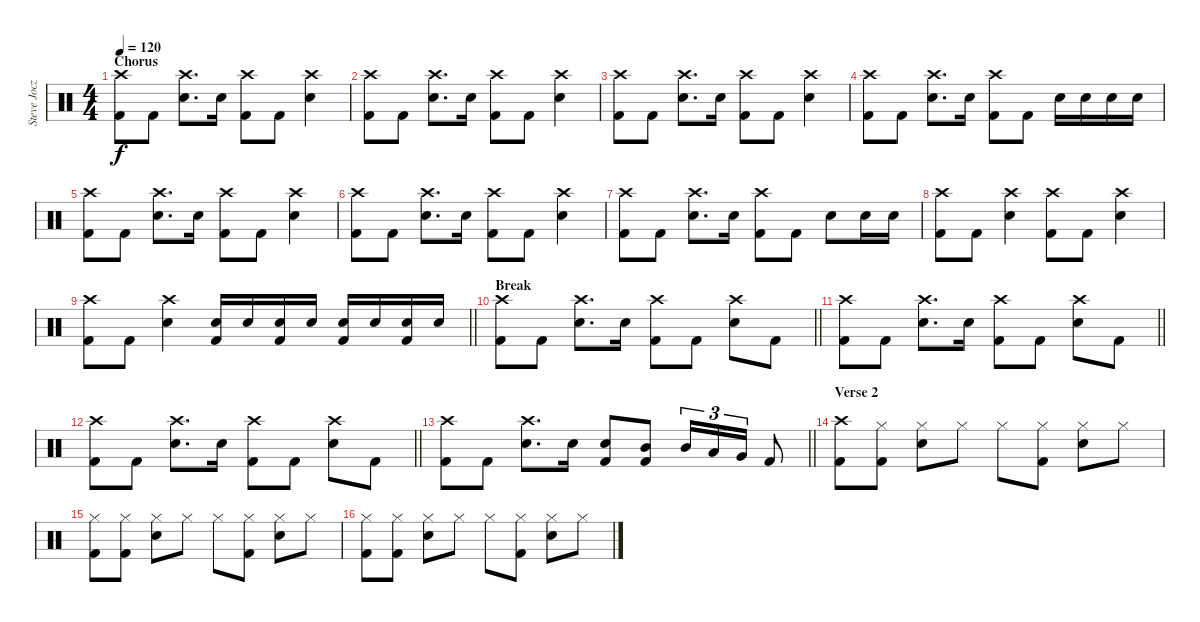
\track ("Steve Jocz" "Steve Jocz") {instrument percussion}
\staff {score}
\articulation defaults
\ts (4 4)
\section ("" "Chorus")
\tempo 120
\clef neutral
\ks c
("Crash high (hit)" "Kick (hit) 2").8{dy f} "Kick (hit) 2".8 ("Crash high (hit)" "Snare (hit) 2").8{d} "Snare (hit) 2".16 ("Crash high (hit)" "Kick (hit) 2").8 "Kick (hit) 2".8 ("Crash high (hit)" "Snare (hit) 2").4 |
("Crash high (hit)" "Kick (hit) 2").8 "Kick (hit) 2".8 ("Crash high (hit)" "Snare (hit) 2").8{d} "Snare (hit) 2".16 ("Crash high (hit)" "Kick (hit) 2").8 "Kick (hit) 2".8 ("Crash high (hit)" "Snare (hit) 2").4 |
("Crash high (hit)" "Kick (hit) 2").8 "Kick (hit) 2".8 ("Crash high (hit)" "Snare (hit) 2").8{d} "Snare (hit) 2".16 ("Crash high (hit)" "Kick (hit) 2").8 "Kick (hit) 2".8 ("Crash high (hit)" "Snare (hit) 2").4 |
("Crash high (hit)" "Kick (hit) 2").8 "Kick (hit) 2".8 ("Crash high (hit)" "Snare (hit) 2").8{d} "Snare (hit) 2".16 ("Crash high (hit)" "Kick (hit) 2").8 "Kick (hit) 2".8 "Snare (hit) 2".16 "Snare (hit) 2".16 "Snare (hit) 2".16 "Snare (hit) 2".16 |
("Crash high (hit)" "Kick (hit) 2").8 "Kick (hit) 2".8 ("Crash high (hit)" "Snare (hit) 2").8{d} "Snare (hit) 2".16 ("Crash high (hit)" "Kick (hit) 2").8 "Kick (hit) 2".8 ("Crash high (hit)" "Snare (hit) 2").4 |
("Crash high (hit)" "Kick (hit) 2").8 "Kick (hit) 2".8 ("Crash high (hit)" "Snare (hit) 2").8{d} "Snare (hit) 2".16 ("Crash high (hit)" "Kick (hit) 2").8 "Kick (hit) 2".8 ("Crash high (hit)" "Snare (hit) 2").4 |
("Crash high (hit)" "Kick (hit) 2").8 "Kick (hit) 2".8 ("Crash high (hit)" "Snare (hit) 2").8{d} "Snare (hit) 2".16 ("Crash high (hit)" "Kick (hit) 2").8 "Kick (hit) 2".8 "Snare (hit) 2".8 "Snare (hit) 2".16 "Snare (hit) 2".16 |
("Crash high (hit)" "Kick (hit) 2").8 "Kick (hit) 2".8 ("Crash high (hit)" "Snare (hit) 2").4 ("Crash high (hit)" "Kick (hit) 2").8 "Kick (hit) 2".8 ("Crash high (hit)" "Snare (hit) 2").4 |
\barLineRight lightlight
("Crash high (hit)" "Kick (hit) 2").8 "Kick (hit) 2".8 ("Crash high (hit)" "Snare (hit) 2").4 ("Snare (hit) 2" "Kick (hit) 2").16 "Snare (hit) 2".16 ("Snare (hit) 2" "Kick (hit) 2").16 "Snare (hit) 2".16 ("Snare (hit) 2" "Kick (hit) 2").16 "Snare (hit) 2".16 ("Snare (hit) 2" "Kick (hit) 2").16 "Snare (hit) 2".16 |
\section ("" "Break")
\barLineRight lightlight
("Crash high (hit)" "Kick (hit) 2").8 "Kick (hit) 2".8 ("Crash high (hit)" "Snare (hit) 2").8{d} "Snare (hit) 2".16 ("Crash high (hit)" "Kick (hit) 2").8 "Kick (hit) 2".8 ("Crash high (hit)" "Snare (hit) 2").8 "Kick (hit) 2".8 |
\barLineRight lightlight
("Crash high (hit)" "Kick (hit) 2").8 "Kick (hit) 2".8 ("Crash high (hit)" "Snare (hit) 2").8{d} "Snare (hit) 2".16 ("Crash high (hit)" "Kick (hit) 2").8 "Kick (hit) 2".8 ("Crash high (hit)" "Snare (hit) 2").8 "Kick (hit) 2".8 |
\barLineRight lightlight
("Crash high (hit)" "Kick (hit) 2").8 "Kick (hit) 2".8 ("Crash high (hit)" "Snare (hit) 2").8{d} "Snare (hit) 2".16 ("Crash high (hit)" "Kick (hit) 2").8 "Kick (hit) 2".8 ("Crash high (hit)" "Snare (hit) 2").8 "Kick (hit) 2".8 |
\barLineRight lightlight
("Crash high (hit)" "Kick (hit) 2").8 "Kick (hit) 2".8 ("Crash high (hit)" "Snare (hit) 2").8{d} "Snare (hit) 2".16 ("Snare (hit) 2" "Kick (hit) 2").8 ("Mid Tom (hit)" "Kick (hit) 2").8 "Mid Tom (hit)".16{tu (3 2)} "Low Tom (hit)".16{tu (3 2)} "Very Low Tom (hit)".16{tu (3 2)} "Kick (hit) 2".8 |
\section ("" "Verse 2")
("Crash high (hit)" "Kick (hit) 2").8 ("Hi-Hat (closed)" "Kick (hit) 2").8 ("Hi-Hat (closed)" "Snare (hit) 2").8 "Hi-Hat (closed)".8 "Hi-Hat (closed)".8 ("Hi-Hat (closed)" "Kick (hit) 2").8 ("Hi-Hat (closed)" "Snare (hit) 2").8 "Hi-Hat (closed)".8 |
("Hi-Hat (closed)" "Kick (hit) 2").8 ("Hi-Hat (closed)" "Kick (hit) 2").8 ("Hi-Hat (closed)" "Snare (hit) 2").8 "Hi-Hat (closed)".8 "Hi-Hat (closed)".8 ("Hi-Hat (closed)" "Kick (hit) 2").8 ("Hi-Hat (closed)" "Snare (hit) 2").8 "Hi-Hat (closed)".8 |
("Hi-Hat (closed)" "Kick (hit) 2").8 ("Hi-Hat (closed)" "Kick (hit) 2").8 ("Hi-Hat (closed)" "Snare (hit) 2").8 "Hi-Hat (closed)".8 "Hi-Hat (closed)".8 ("Hi-Hat (closed)" "Kick (hit) 2").8 ("Hi-Hat (closed)" "Snare (hit) 2").8 "Hi-Hat (closed)".8
